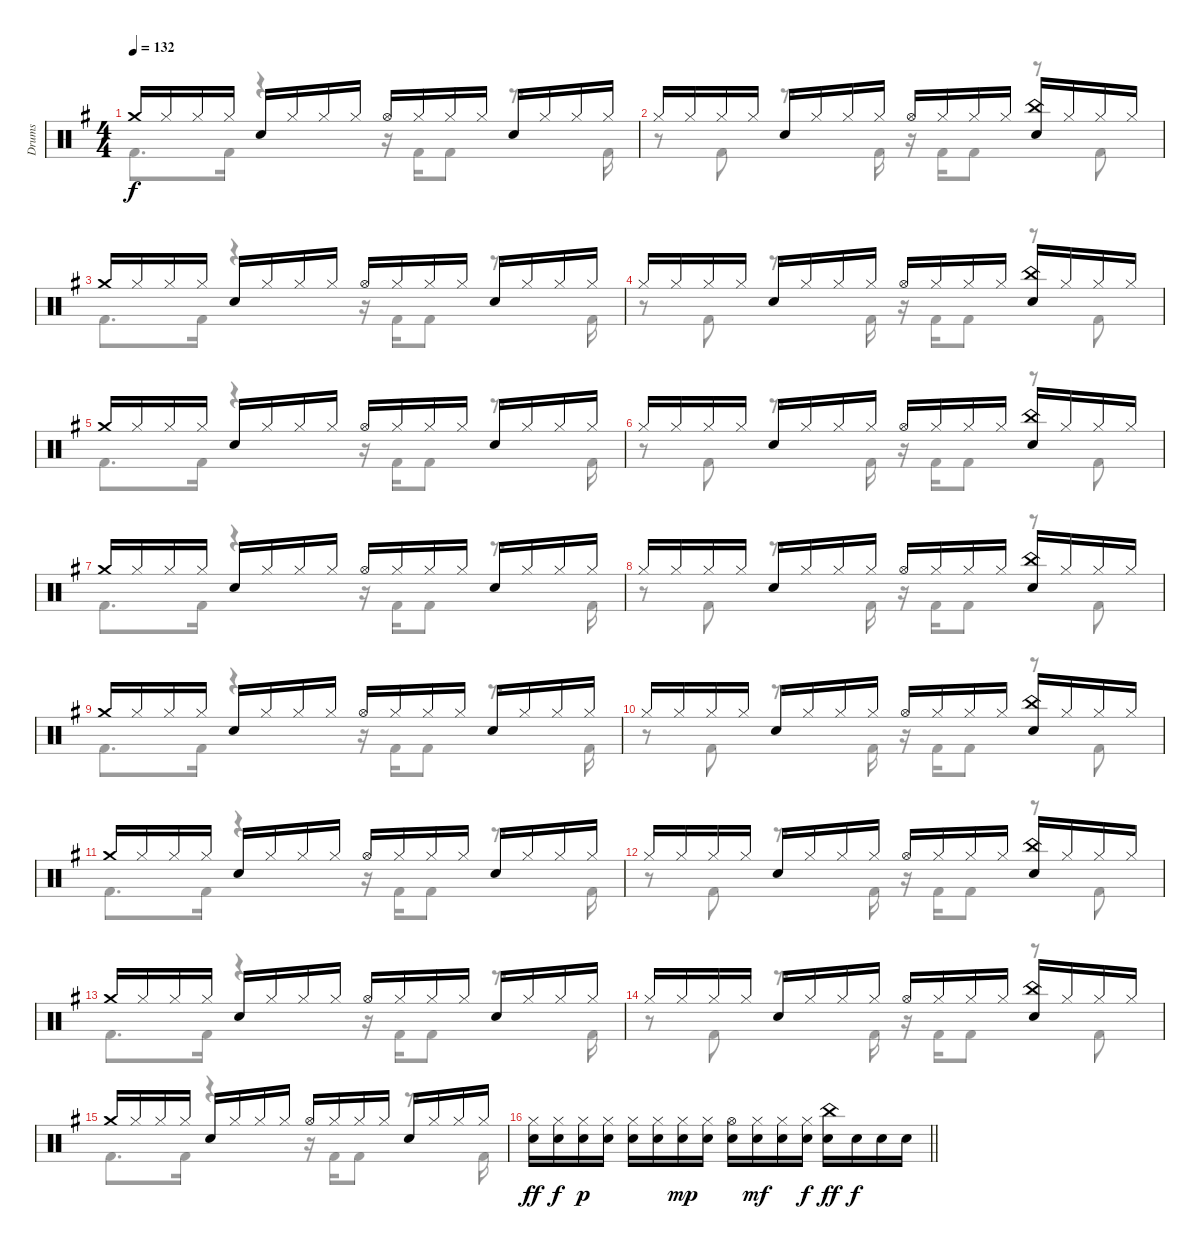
\track ("Drums" "Drums") {instrument percussion}
\staff {score}
\articulation defaults
\voice
\ts (4 4)
\tempo 132
\clef neutral
\ks g "Crash medium (hit)".16{dy f} "Hi-Hat (closed)".16 "Hi-Hat (closed)".16 "Hi-Hat (closed)".16 "Electric Snare (hit)".16 "Hi-Hat (closed)".16 "Hi-Hat (closed)".16 "Hi-Hat (closed)".16 "Hi-Hat (open)".16 "Hi-Hat (closed)".16 "Hi-Hat (closed)".16 "Hi-Hat (closed)".16 "Electric Snare (hit)".16 "Hi-Hat (closed)".16 "Hi-Hat (closed)".16 "Hi-Hat (closed)".16
|
"Hi-Hat (closed)".16 "Hi-Hat (closed)".16 "Hi-Hat (closed)".16 "Hi-Hat (closed)".16 "Electric Snare (hit)".16 "Hi-Hat (closed)".16 "Hi-Hat (closed)".16 "Hi-Hat (closed)".16 "Hi-Hat (open)".16 "Hi-Hat (closed)".16 "Hi-Hat (closed)".16 "Hi-Hat (closed)".16 ("China (hit)" "Electric Snare (hit)").16 "Hi-Hat (closed)".16 "Hi-Hat (closed)".16 "Hi-Hat (closed)".16 |
"Crash medium (hit)".16 "Hi-Hat (closed)".16 "Hi-Hat (closed)".16 "Hi-Hat (closed)".16 "Electric Snare (hit)".16 "Hi-Hat (closed)".16 "Hi-Hat (closed)".16 "Hi-Hat (closed)".16 "Hi-Hat (open)".16 "Hi-Hat (closed)".16 "Hi-Hat (closed)".16 "Hi-Hat (closed)".16 "Electric Snare (hit)".16 "Hi-Hat (closed)".16 "Hi-Hat (closed)".16 "Hi-Hat (closed)".16 |
"Hi-Hat (closed)".16 "Hi-Hat (closed)".16 "Hi-Hat (closed)".16 "Hi-Hat (closed)".16 "Electric Snare (hit)".16 "Hi-Hat (closed)".16 "Hi-Hat (closed)".16 "Hi-Hat (closed)".16 "Hi-Hat (open)".16 "Hi-Hat (closed)".16 "Hi-Hat (closed)".16 "Hi-Hat (closed)".16 ("China (hit)" "Electric Snare (hit)").16 "Hi-Hat (closed)".16 "Hi-Hat (closed)".16 "Hi-Hat (closed)".16 |
"Crash medium (hit)".16 "Hi-Hat (closed)".16 "Hi-Hat (closed)".16 "Hi-Hat (closed)".16 "Electric Snare (hit)".16 "Hi-Hat (closed)".16 "Hi-Hat (closed)".16 "Hi-Hat (closed)".16 "Hi-Hat (open)".16 "Hi-Hat (closed)".16 "Hi-Hat (closed)".16 "Hi-Hat (closed)".16 "Electric Snare (hit)".16 "Hi-Hat (closed)".16 "Hi-Hat (closed)".16 "Hi-Hat (closed)".16 |
"Hi-Hat (closed)".16 "Hi-Hat (closed)".16 "Hi-Hat (closed)".16 "Hi-Hat (closed)".16 "Electric Snare (hit)".16 "Hi-Hat (closed)".16 "Hi-Hat (closed)".16 "Hi-Hat (closed)".16 "Hi-Hat (open)".16 "Hi-Hat (closed)".16 "Hi-Hat (closed)".16 "Hi-Hat (closed)".16 ("China (hit)" "Electric Snare (hit)").16 "Hi-Hat (closed)".16 "Hi-Hat (closed)".16 "Hi-Hat (closed)".16 |
"Crash medium (hit)".16 "Hi-Hat (closed)".16 "Hi-Hat (closed)".16 "Hi-Hat (closed)".16 "Electric Snare (hit)".16 "Hi-Hat (closed)".16 "Hi-Hat (closed)".16 "Hi-Hat (closed)".16 "Hi-Hat (open)".16 "Hi-Hat (closed)".16 "Hi-Hat (closed)".16 "Hi-Hat (closed)".16 "Electric Snare (hit)".16 "Hi-Hat (closed)".16 "Hi-Hat (closed)".16 "Hi-Hat (closed)".16 |
"Hi-Hat (closed)".16 "Hi-Hat (closed)".16 "Hi-Hat (closed)".16 "Hi-Hat (closed)".16 "Electric Snare (hit)".16 "Hi-Hat (closed)".16 "Hi-Hat (closed)".16 "Hi-Hat (closed)".16 "Hi-Hat (open)".16 "Hi-Hat (closed)".16 "Hi-Hat (closed)".16 "Hi-Hat (closed)".16 ("China (hit)" "Electric Snare (hit)").16 "Hi-Hat (closed)".16 "Hi-Hat (closed)".16 "Hi-Hat (closed)".16 |
"Crash medium (hit)".16 "Hi-Hat (closed)".16 "Hi-Hat (closed)".16 "Hi-Hat (closed)".16 "Electric Snare (hit)".16 "Hi-Hat (closed)".16 "Hi-Hat (closed)".16 "Hi-Hat (closed)".16 "Hi-Hat (open)".16 "Hi-Hat (closed)".16 "Hi-Hat (closed)".16 "Hi-Hat (closed)".16 "Electric Snare (hit)".16 "Hi-Hat (closed)".16 "Hi-Hat (closed)".16 "Hi-Hat (closed)".16 |
"Hi-Hat (closed)".16 "Hi-Hat (closed)".16 "Hi-Hat (closed)".16 "Hi-Hat (closed)".16 "Electric Snare (hit)".16 "Hi-Hat (closed)".16 "Hi-Hat (closed)".16 "Hi-Hat (closed)".16 "Hi-Hat (open)".16 "Hi-Hat (closed)".16 "Hi-Hat (closed)".16 "Hi-Hat (closed)".16 ("China (hit)" "Electric Snare (hit)").16 "Hi-Hat (closed)".16 "Hi-Hat (closed)".16 "Hi-Hat (closed)".16 |
"Crash medium (hit)".16 "Hi-Hat (closed)".16 "Hi-Hat (closed)".16 "Hi-Hat (closed)".16 "Electric Snare (hit)".16 "Hi-Hat (closed)".16 "Hi-Hat (closed)".16 "Hi-Hat (closed)".16 "Hi-Hat (open)".16 "Hi-Hat (closed)".16 "Hi-Hat (closed)".16 "Hi-Hat (closed)".16 "Electric Snare (hit)".16 "Hi-Hat (closed)".16 "Hi-Hat (closed)".16 "Hi-Hat (closed)".16 |
"Hi-Hat (closed)".16 "Hi-Hat (closed)".16 "Hi-Hat (closed)".16 "Hi-Hat (closed)".16 "Electric Snare (hit)".16 "Hi-Hat (closed)".16 "Hi-Hat (closed)".16 "Hi-Hat (closed)".16 "Hi-Hat (open)".16 "Hi-Hat (closed)".16 "Hi-Hat (closed)".16 "Hi-Hat (closed)".16 ("China (hit)" "Electric Snare (hit)").16 "Hi-Hat (closed)".16 "Hi-Hat (closed)".16 "Hi-Hat (closed)".16 |
"Crash medium (hit)".16 "Hi-Hat (closed)".16 "Hi-Hat (closed)".16 "Hi-Hat (closed)".16 "Electric Snare (hit)".16 "Hi-Hat (closed)".16 "Hi-Hat (closed)".16 "Hi-Hat (closed)".16 "Hi-Hat (open)".16 "Hi-Hat (closed)".16 "Hi-Hat (closed)".16 "Hi-Hat (closed)".16 "Electric Snare (hit)".16 "Hi-Hat (closed)".16 "Hi-Hat (closed)".16 "Hi-Hat (closed)".16 |
"Hi-Hat (closed)".16 "Hi-Hat (closed)".16 "Hi-Hat (closed)".16 "Hi-Hat (closed)".16 "Electric Snare (hit)".16 "Hi-Hat (closed)".16 "Hi-Hat (closed)".16 "Hi-Hat (closed)".16 "Hi-Hat (open)".16 "Hi-Hat (closed)".16 "Hi-Hat (closed)".16 "Hi-Hat (closed)".16 ("China (hit)" "Electric Snare (hit)").16 "Hi-Hat (closed)".16 "Hi-Hat (closed)".16 "Hi-Hat (closed)".16 |
"Crash medium (hit)".16 "Hi-Hat (closed)".16 "Hi-Hat (closed)".16 "Hi-Hat (closed)".16 "Electric Snare (hit)".16 "Hi-Hat (closed)".16 "Hi-Hat (closed)".16 "Hi-Hat (closed)".16 "Hi-Hat (open)".16 "Hi-Hat (closed)".16 "Hi-Hat (closed)".16 "Hi-Hat (closed)".16 "Electric Snare (hit)".16 "Hi-Hat (closed)".16 "Hi-Hat (closed)".16 "Hi-Hat (closed)".16 |
\barLineRight lightlight
("Hi-Hat (closed)" "Electric Snare (hit)").16{dy ff} ("Hi-Hat (closed)" "Electric Snare (hit)").16{dy f} ("Hi-Hat (closed)" "Electric Snare (hit)").16{dy p} ("Hi-Hat (closed)" "Electric Snare (hit)").16 ("Hi-Hat (closed)" "Electric Snare (hit)").16 ("Hi-Hat (closed)" "Electric Snare (hit)").16 ("Hi-Hat (closed)" "Electric Snare (hit)").16{dy mp} ("Hi-Hat (closed)" "Electric Snare (hit)").16 ("Hi-Hat (open)" "Electric Snare (hit)").16 ("Hi-Hat (closed)" "Electric Snare (hit)").16{dy mf} ("Hi-Hat (closed)" "Electric Snare (hit)").16 ("Hi-Hat (closed)" "Electric Snare (hit)").16{dy f} ("China (hit)" "Electric Snare (hit)").16{dy ff} "Electric Snare (hit)".16{dy f} "Electric Snare (hit)".16 "Electric Snare (hit)".16
\voice
\clef neutral
\ottava regular
\simile none
\ks g "Kick (hit) 2".8{d dy f} "Kick (hit) 2".16
r.4 r.16 "Kick (hit) 2".16 "Kick (hit) 2".8 r.8{d} "Kick (hit) 2".16 |
r.8 "Kick (hit) 2".8 r.8{d} "Kick (hit) 2".16 r.16 "Kick (hit) 2".16 "Kick (hit) 2".8 r.8 "Kick (hit) 2".8 |
"Kick (hit) 2".8{d} "Kick (hit) 2".16 r.4 r.16 "Kick (hit) 2".16 "Kick (hit) 2".8 r.8{d} "Kick (hit) 2".16 |
r.8 "Kick (hit) 2".8 r.8{d} "Kick (hit) 2".16 r.16 "Kick (hit) 2".16 "Kick (hit) 2".8 r.8 "Kick (hit) 2".8 |
"Kick (hit) 2".8{d} "Kick (hit) 2".16 r.4 r.16 "Kick (hit) 2".16 "Kick (hit) 2".8 r.8{d} "Kick (hit) 2".16 |
r.8 "Kick (hit) 2".8 r.8{d} "Kick (hit) 2".16 r.16 "Kick (hit) 2".16 "Kick (hit) 2".8 r.8 "Kick (hit) 2".8 |
"Kick (hit) 2".8{d} "Kick (hit) 2".16 r.4 r.16 "Kick (hit) 2".16 "Kick (hit) 2".8 r.8{d} "Kick (hit) 2".16 |
r.8 "Kick (hit) 2".8 r.8{d} "Kick (hit) 2".16 r.16 "Kick (hit) 2".16 "Kick (hit) 2".8 r.8 "Kick (hit) 2".8 |
"Kick (hit) 2".8{d} "Kick (hit) 2".16 r.4 r.16 "Kick (hit) 2".16 "Kick (hit) 2".8 r.8{d} "Kick (hit) 2".16 |
r.8 "Kick (hit) 2".8 r.8{d} "Kick (hit) 2".16 r.16 "Kick (hit) 2".16 "Kick (hit) 2".8 r.8 "Kick (hit) 2".8 |
"Kick (hit) 2".8{d} "Kick (hit) 2".16 r.4 r.16 "Kick (hit) 2".16 "Kick (hit) 2".8 r.8{d} "Kick (hit) 2".16 |
r.8 "Kick (hit) 2".8 r.8{d} "Kick (hit) 2".16 r.16 "Kick (hit) 2".16 "Kick (hit) 2".8 r.8 "Kick (hit) 2".8 |
"Kick (hit) 2".8{d} "Kick (hit) 2".16 r.4 r.16 "Kick (hit) 2".16 "Kick (hit) 2".8 r.8{d} "Kick (hit) 2".16 |
r.8 "Kick (hit) 2".8 r.8{d} "Kick (hit) 2".16 r.16 "Kick (hit) 2".16 "Kick (hit) 2".8 r.8 "Kick (hit) 2".8 |
"Kick (hit) 2".8{d} "Kick (hit) 2".16 r.4 r.16 "Kick (hit) 2".16 "Kick (hit) 2".8 r.8{d} "Kick (hit) 2".16 |
\barLineRight lightlight
